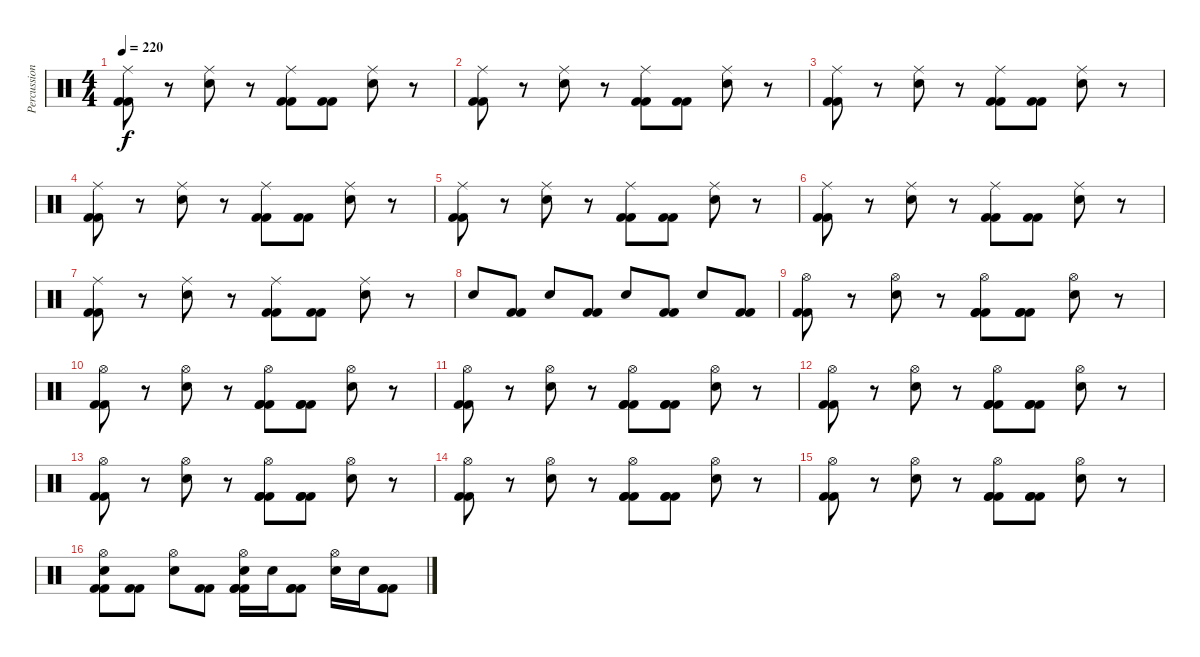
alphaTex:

\track ("Percussion" "Percussion") {instrument percussion}
\staff {score}
\articulation defaults
\ts (4 4)
\tempo 220
\clef neutral
\ks c
("Ride (middle)" "Kick (hit) 2" "Kick (hit) 2").8{dy f} r.8 ("Ride (middle)" "Electric Snare (hit)").8 r.8 ("Ride (middle)" "Kick (hit) 2" "Kick (hit) 2").8 ("Kick (hit) 2" "Kick (hit) 2").8 ("Ride (middle)" "Electric Snare (hit)").8 r.8 |
("Ride (middle)" "Kick (hit) 2" "Kick (hit) 2").8 r.8 ("Ride (middle)" "Electric Snare (hit)").8 r.8 ("Ride (middle)" "Kick (hit) 2" "Kick (hit) 2").8 ("Kick (hit) 2" "Kick (hit) 2").8 ("Ride (middle)" "Electric Snare (hit)").8 r.8 |
("Ride (middle)" "Kick (hit) 2" "Kick (hit) 2").8 r.8 ("Ride (middle)" "Electric Snare (hit)").8 r.8 ("Ride (middle)" "Kick (hit) 2" "Kick (hit) 2").8 ("Kick (hit) 2" "Kick (hit) 2").8 ("Ride (middle)" "Electric Snare (hit)").8 r.8 |
("Ride (middle)" "Kick (hit) 2" "Kick (hit) 2").8 r.8 ("Ride (middle)" "Electric Snare (hit)").8 r.8 ("Ride (middle)" "Kick (hit) 2" "Kick (hit) 2").8 ("Kick (hit) 2" "Kick (hit) 2").8 ("Ride (middle)" "Electric Snare (hit)").8 r.8 |
("Ride (middle)" "Kick (hit) 2" "Kick (hit) 2").8 r.8 ("Ride (middle)" "Electric Snare (hit)").8 r.8 ("Ride (middle)" "Kick (hit) 2" "Kick (hit) 2").8 ("Kick (hit) 2" "Kick (hit) 2").8 ("Ride (middle)" "Electric Snare (hit)").8 r.8 |
("Ride (middle)" "Kick (hit) 2" "Kick (hit) 2").8 r.8 ("Ride (middle)" "Electric Snare (hit)").8 r.8 ("Ride (middle)" "Kick (hit) 2" "Kick (hit) 2").8 ("Kick (hit) 2" "Kick (hit) 2").8 ("Ride (middle)" "Electric Snare (hit)").8 r.8 |
("Ride (middle)" "Kick (hit) 2" "Kick (hit) 2").8 r.8 ("Ride (middle)" "Electric Snare (hit)").8 r.8 ("Ride (middle)" "Kick (hit) 2" "Kick (hit) 2").8 ("Kick (hit) 2" "Kick (hit) 2").8 ("Ride (middle)" "Electric Snare (hit)").8 r.8 |
"Electric Snare (hit)".8 ("Kick (hit) 2" "Kick (hit) 2").8 "Electric Snare (hit)".8 ("Kick (hit) 2" "Kick (hit) 2").8 "Electric Snare (hit)".8 ("Kick (hit) 2" "Kick (hit) 2").8 "Electric Snare (hit)".8 ("Kick (hit) 2" "Kick (hit) 2").8 |
("Hi-Hat (open)" "Kick (hit) 2" "Kick (hit) 2").8 r.8 ("Hi-Hat (open)" "Electric Snare (hit)").8 r.8 ("Hi-Hat (open)" "Kick (hit) 2" "Kick (hit) 2" "Kick (hit) 2").8 ("Kick (hit) 2" "Kick (hit) 2" "Kick (hit) 2").8 ("Hi-Hat (open)" "Electric Snare (hit)").8 r.8 |
("Hi-Hat (open)" "Kick (hit) 2" "Kick (hit) 2").8 r.8 ("Hi-Hat (open)" "Electric Snare (hit)").8 r.8 ("Hi-Hat (open)" "Kick (hit) 2" "Kick (hit) 2" "Kick (hit) 2").8 ("Kick (hit) 2" "Kick (hit) 2" "Kick (hit) 2").8 ("Hi-Hat (open)" "Electric Snare (hit)").8 r.8 |
("Hi-Hat (open)" "Kick (hit) 2" "Kick (hit) 2").8 r.8 ("Hi-Hat (open)" "Electric Snare (hit)").8 r.8 ("Hi-Hat (open)" "Kick (hit) 2" "Kick (hit) 2" "Kick (hit) 2").8 ("Kick (hit) 2" "Kick (hit) 2" "Kick (hit) 2").8 ("Hi-Hat (open)" "Electric Snare (hit)").8 r.8 |
("Hi-Hat (open)" "Kick (hit) 2" "Kick (hit) 2").8 r.8 ("Hi-Hat (open)" "Electric Snare (hit)").8 r.8 ("Hi-Hat (open)" "Kick (hit) 2" "Kick (hit) 2" "Kick (hit) 2").8 ("Kick (hit) 2" "Kick (hit) 2" "Kick (hit) 2").8 ("Hi-Hat (open)" "Electric Snare (hit)").8 r.8 |
("Hi-Hat (open)" "Kick (hit) 2" "Kick (hit) 2").8 r.8 ("Hi-Hat (open)" "Electric Snare (hit)").8 r.8 ("Hi-Hat (open)" "Kick (hit) 2" "Kick (hit) 2" "Kick (hit) 2").8 ("Kick (hit) 2" "Kick (hit) 2" "Kick (hit) 2").8 ("Hi-Hat (open)" "Electric Snare (hit)").8 r.8 |
("Hi-Hat (open)" "Kick (hit) 2" "Kick (hit) 2").8 r.8 ("Hi-Hat (open)" "Electric Snare (hit)").8 r.8 ("Hi-Hat (open)" "Kick (hit) 2" "Kick (hit) 2" "Kick (hit) 2").8 ("Kick (hit) 2" "Kick (hit) 2" "Kick (hit) 2").8 ("Hi-Hat (open)" "Electric Snare (hit)").8 r.8 |
("Hi-Hat (open)" "Kick (hit) 2" "Kick (hit) 2").8 r.8 ("Hi-Hat (open)" "Electric Snare (hit)").8 r.8 ("Hi-Hat (open)" "Kick (hit) 2" "Kick (hit) 2" "Kick (hit) 2").8 ("Kick (hit) 2" "Kick (hit) 2" "Kick (hit) 2").8 ("Hi-Hat (open)" "Electric Snare (hit)").8 r.8 |
("Hi-Hat (open)" "Electric Snare (hit)" "Kick (hit) 2" "Kick (hit) 2").8 ("Kick (hit) 2" "Kick (hit) 2").8 ("Hi-Hat (open)" "Electric Snare (hit)").8 ("Kick (hit) 2" "Kick (hit) 2").8 ("Hi-Hat (open)" "Electric Snare (hit)" "Kick (hit) 2" "Kick (hit) 2" "Kick (hit) 2").16 "Electric Snare (hit)".16 ("Kick (hit) 2" "Kick (hit) 2" "Kick (hit) 2").8 ("Hi-Hat (open)" "Electric Snare (hit)").16 "Electric Snare (hit)".16 ("Kick (hit) 2" "Kick (hit) 2" "Kick (hit) 2").8
